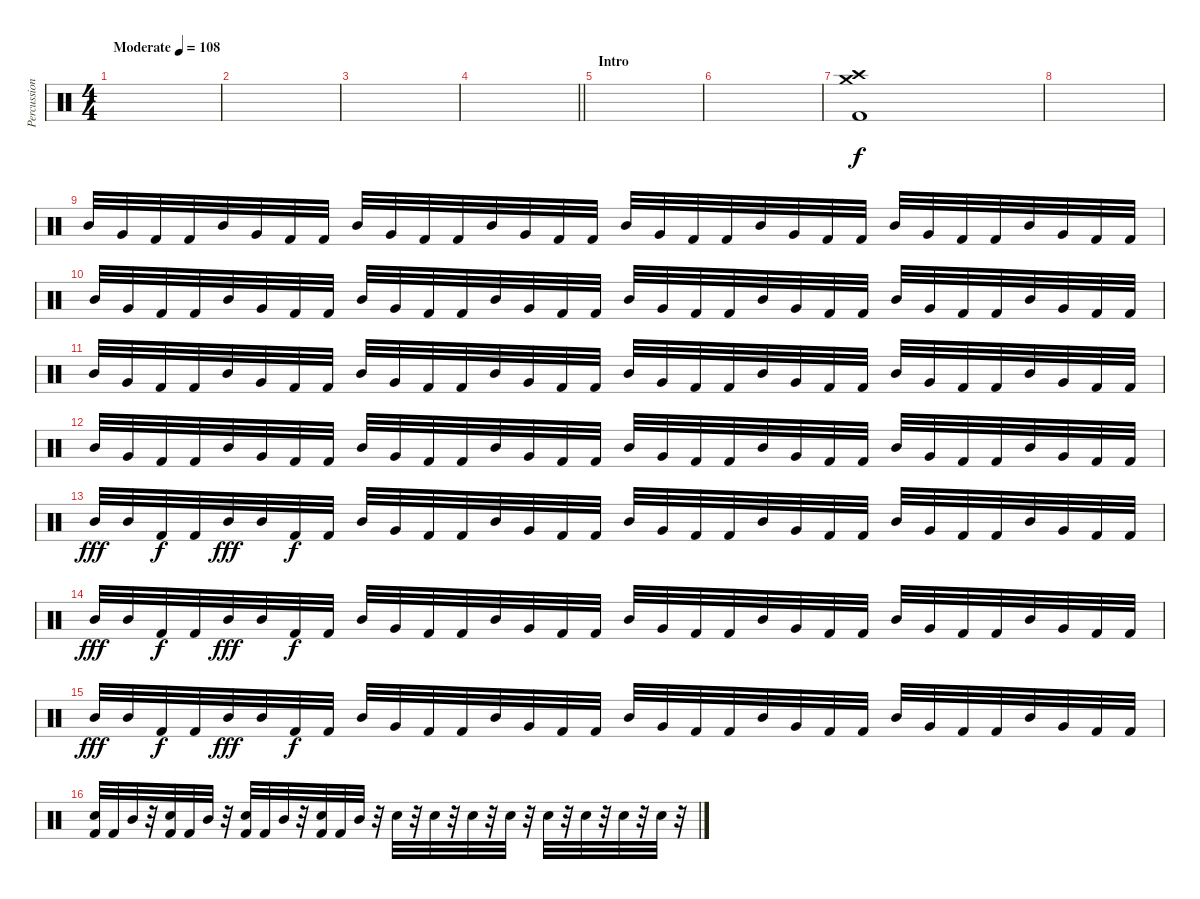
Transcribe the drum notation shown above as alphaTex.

\track ("Percussions" "Percussion") {instrument percussion}
\staff {score}
\articulation defaults
\ts (4 4)
\tempo (108 "Moderate")
\clef neutral
\ks c
|
|
|
\barLineRight lightlight
|
\section ("" "Intro")
|
|
("Kick (hit) 2" "Crash medium (hit)" "Crash high (hit)").1 |
|
"Mid Tom (hit)".32{dy f} "Very Low Tom (hit)".32 "Kick (hit) 2".32 "Kick (hit) 2".32 "Mid Tom (hit)".32 "Very Low Tom (hit)".32 "Kick (hit) 2".32 "Kick (hit) 2".32 "Mid Tom (hit)".32 "Very Low Tom (hit)".32 "Kick (hit) 2".32 "Kick (hit) 2".32 "Mid Tom (hit)".32 "Very Low Tom (hit)".32 "Kick (hit) 2".32 "Kick (hit) 2".32 "Mid Tom (hit)".32 "Very Low Tom (hit)".32 "Kick (hit) 2".32 "Kick (hit) 2".32 "Mid Tom (hit)".32 "Very Low Tom (hit)".32 "Kick (hit) 2".32 "Kick (hit) 2".32 "Mid Tom (hit)".32 "Very Low Tom (hit)".32 "Kick (hit) 2".32 "Kick (hit) 2".32 "Mid Tom (hit)".32 "Very Low Tom (hit)".32 "Kick (hit) 2".32 "Kick (hit) 2".32 |
"Mid Tom (hit)".32 "Very Low Tom (hit)".32 "Kick (hit) 2".32 "Kick (hit) 2".32 "Mid Tom (hit)".32 "Very Low Tom (hit)".32 "Kick (hit) 2".32 "Kick (hit) 2".32 "Mid Tom (hit)".32 "Very Low Tom (hit)".32 "Kick (hit) 2".32 "Kick (hit) 2".32 "Mid Tom (hit)".32 "Very Low Tom (hit)".32 "Kick (hit) 2".32 "Kick (hit) 2".32 "Mid Tom (hit)".32 "Very Low Tom (hit)".32 "Kick (hit) 2".32 "Kick (hit) 2".32 "Mid Tom (hit)".32 "Very Low Tom (hit)".32 "Kick (hit) 2".32 "Kick (hit) 2".32 "Mid Tom (hit)".32 "Very Low Tom (hit)".32 "Kick (hit) 2".32 "Kick (hit) 2".32 "Mid Tom (hit)".32 "Very Low Tom (hit)".32 "Kick (hit) 2".32 "Kick (hit) 2".32 |
"Mid Tom (hit)".32 "Very Low Tom (hit)".32 "Kick (hit) 2".32 "Kick (hit) 2".32 "Mid Tom (hit)".32 "Very Low Tom (hit)".32 "Kick (hit) 2".32 "Kick (hit) 2".32 "Mid Tom (hit)".32 "Very Low Tom (hit)".32 "Kick (hit) 2".32 "Kick (hit) 2".32 "Mid Tom (hit)".32 "Very Low Tom (hit)".32 "Kick (hit) 2".32 "Kick (hit) 2".32 "Mid Tom (hit)".32 "Very Low Tom (hit)".32 "Kick (hit) 2".32 "Kick (hit) 2".32 "Mid Tom (hit)".32 "Very Low Tom (hit)".32 "Kick (hit) 2".32 "Kick (hit) 2".32 "Mid Tom (hit)".32 "Very Low Tom (hit)".32 "Kick (hit) 2".32 "Kick (hit) 2".32 "Mid Tom (hit)".32 "Very Low Tom (hit)".32 "Kick (hit) 2".32 "Kick (hit) 2".32 |
"Mid Tom (hit)".32 "Very Low Tom (hit)".32 "Kick (hit) 2".32 "Kick (hit) 2".32 "Mid Tom (hit)".32 "Very Low Tom (hit)".32 "Kick (hit) 2".32 "Kick (hit) 2".32 "Mid Tom (hit)".32 "Very Low Tom (hit)".32 "Kick (hit) 2".32 "Kick (hit) 2".32 "Mid Tom (hit)".32 "Very Low Tom (hit)".32 "Kick (hit) 2".32 "Kick (hit) 2".32 "Mid Tom (hit)".32 "Very Low Tom (hit)".32 "Kick (hit) 2".32 "Kick (hit) 2".32 "Mid Tom (hit)".32 "Very Low Tom (hit)".32 "Kick (hit) 2".32 "Kick (hit) 2".32 "Mid Tom (hit)".32 "Very Low Tom (hit)".32 "Kick (hit) 2".32 "Kick (hit) 2".32 "Mid Tom (hit)".32 "Very Low Tom (hit)".32 "Kick (hit) 2".32 "Kick (hit) 2".32 |
"Mid Tom (hit)".32{dy fff} "Mid Tom (hit)".32 "Kick (hit) 2".32{dy f} "Kick (hit) 2".32 "Mid Tom (hit)".32{dy fff} "Mid Tom (hit)".32 "Kick (hit) 2".32{dy f} "Kick (hit) 2".32 "Mid Tom (hit)".32 "Very Low Tom (hit)".32 "Kick (hit) 2".32 "Kick (hit) 2".32 "Mid Tom (hit)".32 "Very Low Tom (hit)".32 "Kick (hit) 2".32 "Kick (hit) 2".32 "Mid Tom (hit)".32 "Very Low Tom (hit)".32 "Kick (hit) 2".32 "Kick (hit) 2".32 "Mid Tom (hit)".32 "Very Low Tom (hit)".32 "Kick (hit) 2".32 "Kick (hit) 2".32 "Mid Tom (hit)".32 "Very Low Tom (hit)".32 "Kick (hit) 2".32 "Kick (hit) 2".32 "Mid Tom (hit)".32 "Very Low Tom (hit)".32 "Kick (hit) 2".32 "Kick (hit) 2".32 |
"Mid Tom (hit)".32{dy fff} "Mid Tom (hit)".32 "Kick (hit) 2".32{dy f} "Kick (hit) 2".32 "Mid Tom (hit)".32{dy fff} "Mid Tom (hit)".32 "Kick (hit) 2".32{dy f} "Kick (hit) 2".32 "Mid Tom (hit)".32 "Very Low Tom (hit)".32 "Kick (hit) 2".32 "Kick (hit) 2".32 "Mid Tom (hit)".32 "Very Low Tom (hit)".32 "Kick (hit) 2".32 "Kick (hit) 2".32 "Mid Tom (hit)".32 "Very Low Tom (hit)".32 "Kick (hit) 2".32 "Kick (hit) 2".32 "Mid Tom (hit)".32 "Very Low Tom (hit)".32 "Kick (hit) 2".32 "Kick (hit) 2".32 "Mid Tom (hit)".32 "Very Low Tom (hit)".32 "Kick (hit) 2".32 "Kick (hit) 2".32 "Mid Tom (hit)".32 "Very Low Tom (hit)".32 "Kick (hit) 2".32 "Kick (hit) 2".32 |
"Mid Tom (hit)".32{dy fff} "Mid Tom (hit)".32 "Kick (hit) 2".32{dy f} "Kick (hit) 2".32 "Mid Tom (hit)".32{dy fff} "Mid Tom (hit)".32 "Kick (hit) 2".32{dy f} "Kick (hit) 2".32 "Mid Tom (hit)".32 "Very Low Tom (hit)".32 "Kick (hit) 2".32 "Kick (hit) 2".32 "Mid Tom (hit)".32 "Very Low Tom (hit)".32 "Kick (hit) 2".32 "Kick (hit) 2".32 "Mid Tom (hit)".32 "Very Low Tom (hit)".32 "Kick (hit) 2".32 "Kick (hit) 2".32 "Mid Tom (hit)".32 "Very Low Tom (hit)".32 "Kick (hit) 2".32 "Kick (hit) 2".32 "Mid Tom (hit)".32 "Very Low Tom (hit)".32 "Kick (hit) 2".32 "Kick (hit) 2".32 "Mid Tom (hit)".32 "Very Low Tom (hit)".32 "Kick (hit) 2".32 "Kick (hit) 2".32 |
("Kick (hit) 2" "Electric Snare (hit)").32 "Kick (hit) 2".32 "Mid Tom (hit)".32 r.32 ("Kick (hit) 2" "Electric Snare (hit)").32 "Kick (hit) 2".32 "Mid Tom (hit)".32 r.32 ("Kick (hit) 2" "Electric Snare (hit)").32 "Kick (hit) 2".32 "Mid Tom (hit)".32 r.32 ("Kick (hit) 2" "Electric Snare (hit)").32 "Kick (hit) 2".32 "Mid Tom (hit)".32 r.32 "Electric Snare (hit)".32 r.32 "Electric Snare (hit)".32 r.32 "Electric Snare (hit)".32 r.32 "Electric Snare (hit)".32 r.32 "Electric Snare (hit)".32 r.32 "Electric Snare (hit)".32 r.32 "Electric Snare (hit)".32 r.32 "Electric Snare (hit)".32 r.32
